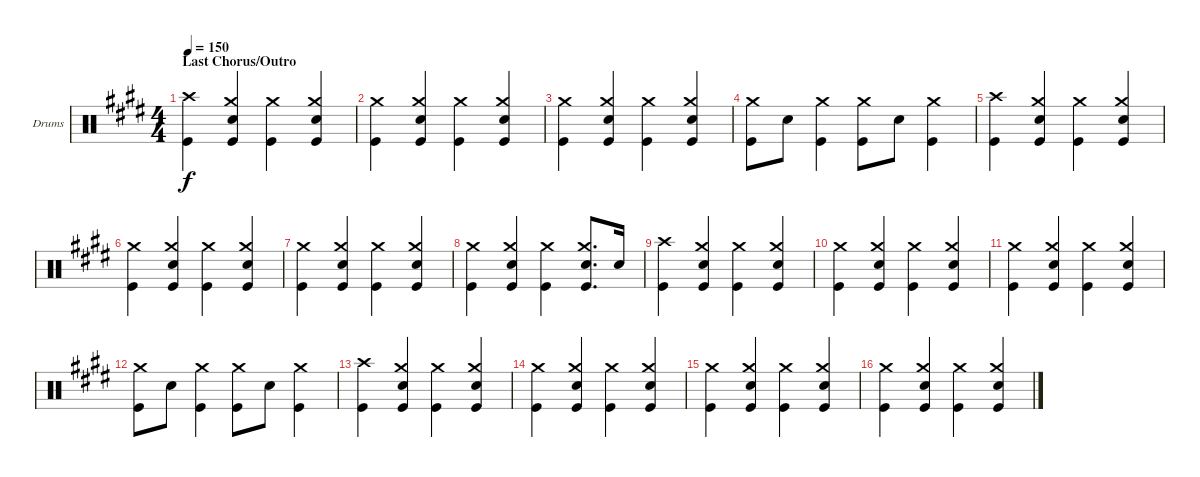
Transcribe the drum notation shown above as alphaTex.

\bracketExtendMode groupsimilarinstruments
\firstSystemTrackNameOrientation horizontal
\otherSystemsTrackNameOrientation horizontal
\track ("Drumkit" "Drums") {instrument percussion}
\staff {score}
\articulation defaults
\ts (4 4)
\section ("" "Last Chorus/Outro")
\tempo 150
\clef neutral
\ks e
("Crash high (hit)" "Kick (hit)").4{dy f} ("Crash medium (hit)" "Snare (hit) 2" "Kick (hit)").4 ("Crash medium (hit)" "Kick (hit)").4 ("Crash medium (hit)" "Snare (hit) 2" "Kick (hit)").4 |
("Crash medium (hit)" "Kick (hit)").4 ("Crash medium (hit)" "Snare (hit) 2" "Kick (hit)").4 ("Crash medium (hit)" "Kick (hit)").4 ("Crash medium (hit)" "Snare (hit) 2" "Kick (hit)").4 |
("Crash medium (hit)" "Kick (hit)").4 ("Crash medium (hit)" "Snare (hit) 2" "Kick (hit)").4 ("Crash medium (hit)" "Kick (hit)").4 ("Crash medium (hit)" "Snare (hit) 2" "Kick (hit)").4 |
("Crash medium (hit)" "Kick (hit)").8 "Snare (hit) 2".8 ("Crash medium (hit)" "Kick (hit)").4 ("Crash medium (hit)" "Kick (hit)").8 "Snare (hit) 2".8 ("Crash medium (hit)" "Kick (hit)").4 |
("Crash high (hit)" "Kick (hit)").4 ("Crash medium (hit)" "Snare (hit) 2" "Kick (hit)").4 ("Crash medium (hit)" "Kick (hit)").4 ("Crash medium (hit)" "Snare (hit) 2" "Kick (hit)").4 |
("Crash medium (hit)" "Kick (hit)").4 ("Crash medium (hit)" "Snare (hit) 2" "Kick (hit)").4 ("Crash medium (hit)" "Kick (hit)").4 ("Crash medium (hit)" "Snare (hit) 2" "Kick (hit)").4 |
("Crash medium (hit)" "Kick (hit)").4 ("Crash medium (hit)" "Snare (hit) 2" "Kick (hit)").4 ("Crash medium (hit)" "Kick (hit)").4 ("Crash medium (hit)" "Snare (hit) 2" "Kick (hit)").4 |
("Crash medium (hit)" "Kick (hit)").4 ("Crash medium (hit)" "Snare (hit) 2" "Kick (hit)").4 ("Crash medium (hit)" "Kick (hit)").4 ("Crash medium (hit)" "Snare (hit) 2" "Kick (hit)").8{d} "Snare (hit) 2".16 |
("Crash high (hit)" "Kick (hit)").4 ("Crash medium (hit)" "Snare (hit) 2" "Kick (hit)").4 ("Crash medium (hit)" "Kick (hit)").4 ("Crash medium (hit)" "Snare (hit) 2" "Kick (hit)").4 |
("Crash medium (hit)" "Kick (hit)").4 ("Crash medium (hit)" "Snare (hit) 2" "Kick (hit)").4 ("Crash medium (hit)" "Kick (hit)").4 ("Crash medium (hit)" "Snare (hit) 2" "Kick (hit)").4 |
("Crash medium (hit)" "Kick (hit)").4 ("Crash medium (hit)" "Snare (hit) 2" "Kick (hit)").4 ("Crash medium (hit)" "Kick (hit)").4 ("Crash medium (hit)" "Snare (hit) 2" "Kick (hit)").4 |
("Crash medium (hit)" "Kick (hit)").8 "Snare (hit) 2".8 ("Crash medium (hit)" "Kick (hit)").4 ("Crash medium (hit)" "Kick (hit)").8 "Snare (hit) 2".8 ("Crash medium (hit)" "Kick (hit)").4 |
("Crash high (hit)" "Kick (hit)").4 ("Crash medium (hit)" "Snare (hit) 2" "Kick (hit)").4 ("Crash medium (hit)" "Kick (hit)").4 ("Crash medium (hit)" "Snare (hit) 2" "Kick (hit)").4 |
("Crash medium (hit)" "Kick (hit)").4 ("Crash medium (hit)" "Snare (hit) 2" "Kick (hit)").4 ("Crash medium (hit)" "Kick (hit)").4 ("Crash medium (hit)" "Snare (hit) 2" "Kick (hit)").4 |
("Crash medium (hit)" "Kick (hit)").4 ("Crash medium (hit)" "Snare (hit) 2" "Kick (hit)").4 ("Crash medium (hit)" "Kick (hit)").4 ("Crash medium (hit)" "Snare (hit) 2" "Kick (hit)").4 |
("Crash medium (hit)" "Kick (hit)").4 ("Crash medium (hit)" "Snare (hit) 2" "Kick (hit)").4 ("Crash medium (hit)" "Kick (hit)").4 ("Crash medium (hit)" "Snare (hit) 2" "Kick (hit)").4
